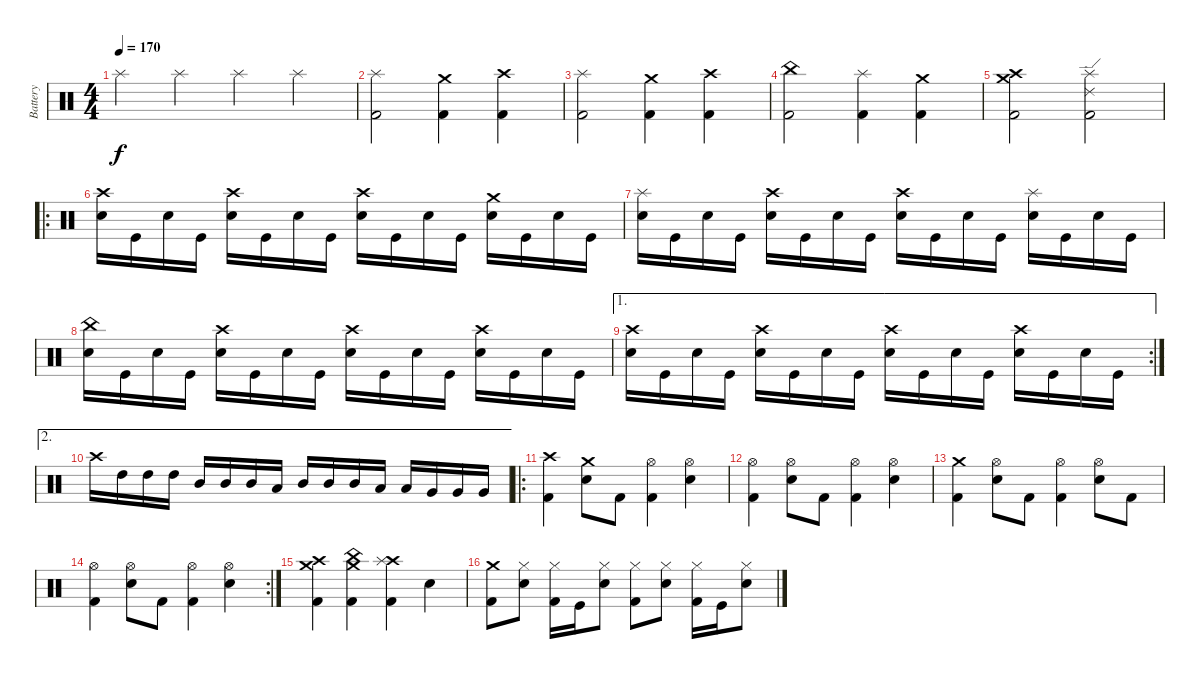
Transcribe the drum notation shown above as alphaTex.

\track ("Battery" "Battery") {instrument percussion}
\staff {score}
\articulation defaults
\ts (4 4)
\tempo 170
\clef neutral
\ks c "Splash (hit)".4{dy f} "Splash (hit)".4 "Splash (hit)".4 "Splash (hit)".4
|
("Splash (hit)" "Kick (hit) 2").2 ("Crash medium (hit)" "Kick (hit) 2").4 ("Crash high (hit)" "Kick (hit) 2").4 |
("Splash (hit)" "Kick (hit) 2").2 ("Crash medium (hit)" "Kick (hit) 2").4 ("Crash high (hit)" "Kick (hit) 2").4 |
("China (hit)" "Kick (hit) 2").2 ("Splash (hit)" "Kick (hit) 2").4 ("Crash medium (hit)" "Kick (hit) 2").4 |
("Crash high (hit)" "Crash medium (hit)" "Kick (hit) 2").2 ("Ride (edge) 2" "Splash (hit)" "Kick (hit) 2").2 |
\ro
("Crash high (hit)" "Snare (hit) 2").16 "Kick (hit)".16 "Snare (hit) 2".16 "Kick (hit)".16 ("Crash high (hit)" "Snare (hit) 2").16 "Kick (hit)".16 "Snare (hit) 2".16 "Kick (hit)".16 ("Crash high (hit)" "Snare (hit) 2").16 "Kick (hit)".16 "Snare (hit) 2".16 "Kick (hit)".16 ("Crash medium (hit)" "Snare (hit) 2").16 "Kick (hit)".16 "Snare (hit) 2".16 "Kick (hit)".16 |
("Splash (hit)" "Snare (hit) 2").16 "Kick (hit)".16 "Snare (hit) 2".16 "Kick (hit)".16 ("Crash high (hit)" "Snare (hit) 2").16 "Kick (hit)".16 "Snare (hit) 2".16 "Kick (hit)".16 ("Crash high (hit)" "Snare (hit) 2").16 "Kick (hit)".16 "Snare (hit) 2".16 "Kick (hit)".16 ("Splash (hit)" "Snare (hit) 2").16 "Kick (hit)".16 "Snare (hit) 2".16 "Kick (hit)".16 |
("China (hit)" "Snare (hit) 2").16 "Kick (hit)".16 "Snare (hit) 2".16 "Kick (hit)".16 ("Crash high (hit)" "Snare (hit) 2").16 "Kick (hit)".16 "Snare (hit) 2".16 "Kick (hit)".16 ("Crash high (hit)" "Snare (hit) 2").16 "Kick (hit)".16 "Snare (hit) 2".16 "Kick (hit)".16 ("Crash high (hit)" "Snare (hit) 2").16 "Kick (hit)".16 "Snare (hit) 2".16 "Kick (hit)".16 |
\ae 1
\rc 2
("Crash high (hit)" "Snare (hit) 2").16 "Kick (hit)".16 "Snare (hit) 2".16 "Kick (hit)".16 ("Crash high (hit)" "Snare (hit) 2").16 "Kick (hit)".16 "Snare (hit) 2".16 "Kick (hit)".16 ("Crash high (hit)" "Snare (hit) 2").16 "Kick (hit)".16 "Snare (hit) 2".16 "Kick (hit)".16 ("Crash high (hit)" "Snare (hit) 2").16 "Kick (hit)".16 "Snare (hit) 2".16 "Kick (hit)".16 |
\ae 2 "Crash high (hit)".16 "High Tom (hit)".16 "High Tom (hit)".16 "High Tom (hit)".16 "Mid Tom (hit)".16 "Mid Tom (hit)".16 "Mid Tom (hit)".16 "Low Tom (hit)".16 "Mid Tom (hit)".16 "Mid Tom (hit)".16 "Mid Tom (hit)".16 "Low Tom (hit)".16 "Low Tom (hit)".16 "Very Low Tom (hit)".16 "Very Low Tom (hit)".16 "Very Low Tom (hit)".16
|
\ro
("Crash high (hit)" "Kick (hit) 2").4 ("Crash medium (hit)" "Snare (hit) 2").8 "Kick (hit) 2".8 ("Hi-Hat (open)" "Kick (hit) 2").4 ("Hi-Hat (open)" "Snare (hit) 2").4 |
("Hi-Hat (open)" "Kick (hit) 2").4 ("Hi-Hat (open)" "Snare (hit) 2").8 "Kick (hit) 2".8 ("Hi-Hat (open)" "Kick (hit) 2").4 ("Hi-Hat (open)" "Snare (hit) 2").4 |
("Crash medium (hit)" "Kick (hit) 2").4 ("Hi-Hat (open)" "Snare (hit) 2").8 "Kick (hit) 2".8 ("Hi-Hat (open)" "Kick (hit) 2").4 ("Hi-Hat (open)" "Snare (hit) 2").8 "Kick (hit) 2".8 |
\rc 2
("Hi-Hat (open)" "Kick (hit) 2").4 ("Hi-Hat (open)" "Snare (hit) 2").8 "Kick (hit) 2".8 ("Hi-Hat (open)" "Kick (hit) 2").4 ("Hi-Hat (open)" "Snare (hit) 2").4 |
("Crash high (hit)" "Crash medium (hit)" "Kick (hit) 2").4 ("Crash medium (hit)" "China (hit)" "Kick (hit) 2").4 ("Crash high (hit)" "Splash (hit)" "Kick (hit) 2").4 "Snare (hit) 2".4 |
("Crash medium (hit)" "Kick (hit) 2").8 ("Hi-Hat (closed)" "Snare (hit) 2").8 ("Hi-Hat (closed)" "Kick (hit) 2").16 "Kick (hit)".16 ("Hi-Hat (closed)" "Snare (hit) 2").8 ("Hi-Hat (closed)" "Kick (hit) 2").8 ("Hi-Hat (closed)" "Snare (hit) 2").8 ("Hi-Hat (closed)" "Kick (hit) 2").16 "Kick (hit)".16 ("Hi-Hat (closed)" "Snare (hit) 2").8
